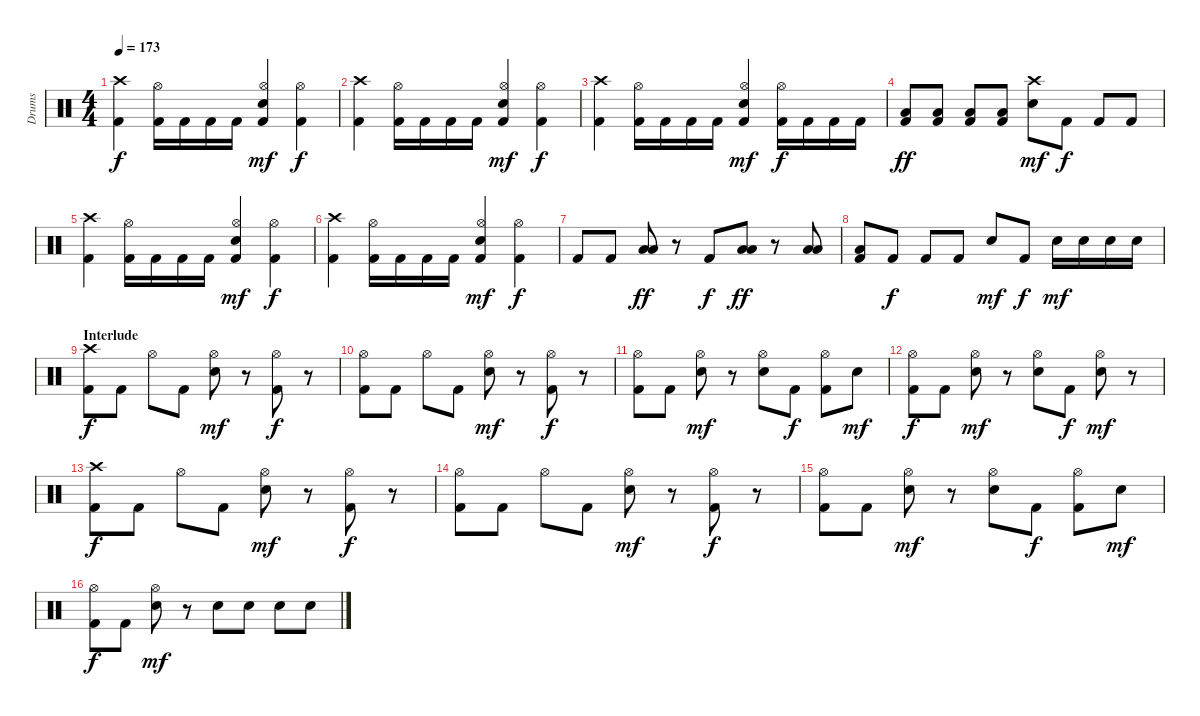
\track ("Drums" "Drums") {instrument percussion}
\staff {score}
\articulation defaults
\ts (4 4)
\tempo 173
\clef neutral
\ks c
("Crash high (hit)" "Kick (hit) 2").4{dy f} ("Hi-Hat (open)" "Kick (hit) 2").16 "Kick (hit) 2".16 "Kick (hit) 2".16 "Kick (hit) 2".16 ("Hi-Hat (open)" "Snare (hit) 2" "Kick (hit) 2").4{dy mf} ("Hi-Hat (open)" "Kick (hit) 2").4{dy f} |
("Crash high (hit)" "Kick (hit) 2").4 ("Hi-Hat (open)" "Kick (hit) 2").16 "Kick (hit) 2".16 "Kick (hit) 2".16 "Kick (hit) 2".16 ("Hi-Hat (open)" "Snare (hit) 2" "Kick (hit) 2").4{dy mf} ("Hi-Hat (open)" "Kick (hit) 2").4{dy f} |
("Crash high (hit)" "Kick (hit) 2").4 ("Hi-Hat (open)" "Kick (hit) 2").16 "Kick (hit) 2".16 "Kick (hit) 2".16 "Kick (hit) 2".16 ("Hi-Hat (open)" "Snare (hit) 2" "Kick (hit) 2").4{dy mf} ("Hi-Hat (open)" "Kick (hit) 2").16{dy f} "Kick (hit) 2".16 "Kick (hit) 2".16 "Kick (hit) 2".16 |
("Low Tom (hit)" "Kick (hit) 2").8{dy ff} ("Low Tom (hit)" "Kick (hit) 2").8 ("Low Tom (hit)" "Kick (hit) 2").8 ("Low Tom (hit)" "Kick (hit) 2").8 ("Crash high (hit)" "Snare (hit) 2").8{dy mf} "Kick (hit) 2".8{dy f} "Kick (hit) 2".8 "Kick (hit) 2".8 |
("Crash high (hit)" "Kick (hit) 2").4 ("Hi-Hat (open)" "Kick (hit) 2").16 "Kick (hit) 2".16 "Kick (hit) 2".16 "Kick (hit) 2".16 ("Hi-Hat (open)" "Snare (hit) 2" "Kick (hit) 2").4{dy mf} ("Hi-Hat (open)" "Kick (hit) 2").4{dy f} |
("Crash high (hit)" "Kick (hit) 2").4 ("Hi-Hat (open)" "Kick (hit) 2").16 "Kick (hit) 2".16 "Kick (hit) 2".16 "Kick (hit) 2".16 ("Hi-Hat (open)" "Snare (hit) 2" "Kick (hit) 2").4{dy mf} ("Hi-Hat (open)" "Kick (hit) 2").4{dy f} |
"Kick (hit) 2".8 "Kick (hit) 2".8 ("Low Tom (hit)" "Low Floor Tom (hit)").8{dy ff} r.8 "Kick (hit) 2".8{dy f} ("Low Tom (hit)" "Low Floor Tom (hit)").8{dy ff} r.8 ("Low Tom (hit)" "Low Floor Tom (hit)").8 |
("Low Tom (hit)" "Kick (hit) 2").8 "Kick (hit) 2".8{dy f} "Kick (hit) 2".8 "Kick (hit) 2".8 "Snare (hit) 2".8{dy mf} "Kick (hit) 2".8{dy f} "Snare (hit) 2".16{dy mf} "Snare (hit) 2".16 "Snare (hit) 2".16 "Snare (hit) 2".16 |
\section ("" "Interlude")
("Crash high (hit)" "Kick (hit) 2").8{dy f} "Kick (hit) 2".8 "Hi-Hat (open)".8 "Kick (hit) 2".8 ("Hi-Hat (open)" "Snare (hit) 2").8{dy mf} r.8 ("Hi-Hat (open)" "Kick (hit) 2").8{dy f} r.8 |
("Hi-Hat (open)" "Kick (hit) 2").8 "Kick (hit) 2".8 "Hi-Hat (open)".8 "Kick (hit) 2".8 ("Hi-Hat (open)" "Snare (hit) 2").8{dy mf} r.8 ("Hi-Hat (open)" "Kick (hit) 2").8{dy f} r.8 |
("Hi-Hat (open)" "Kick (hit) 2").8 "Kick (hit) 2".8 ("Hi-Hat (open)" "Snare (hit) 2").8{dy mf} r.8 ("Hi-Hat (open)" "Snare (hit) 2").8 "Kick (hit) 2".8{dy f} ("Hi-Hat (open)" "Kick (hit) 2").8 "Snare (hit) 2".8{dy mf} |
("Hi-Hat (open)" "Kick (hit) 2").8{dy f} "Kick (hit) 2".8 ("Hi-Hat (open)" "Snare (hit) 2").8{dy mf} r.8 ("Hi-Hat (open)" "Snare (hit) 2").8 "Kick (hit) 2".8{dy f} ("Hi-Hat (open)" "Snare (hit) 2").8{dy mf} r.8 |
("Crash high (hit)" "Kick (hit) 2").8{dy f} "Kick (hit) 2".8 "Hi-Hat (open)".8 "Kick (hit) 2".8 ("Hi-Hat (open)" "Snare (hit) 2").8{dy mf} r.8 ("Hi-Hat (open)" "Kick (hit) 2").8{dy f} r.8 |
("Hi-Hat (open)" "Kick (hit) 2").8 "Kick (hit) 2".8 "Hi-Hat (open)".8 "Kick (hit) 2".8 ("Hi-Hat (open)" "Snare (hit) 2").8{dy mf} r.8 ("Hi-Hat (open)" "Kick (hit) 2").8{dy f} r.8 |
("Hi-Hat (open)" "Kick (hit) 2").8 "Kick (hit) 2".8 ("Hi-Hat (open)" "Snare (hit) 2").8{dy mf} r.8 ("Hi-Hat (open)" "Snare (hit) 2").8 "Kick (hit) 2".8{dy f} ("Hi-Hat (open)" "Kick (hit) 2").8 "Snare (hit) 2".8{dy mf} |
("Hi-Hat (open)" "Kick (hit) 2").8{dy f} "Kick (hit) 2".8 ("Hi-Hat (open)" "Snare (hit) 2").8{dy mf} r.8 "Snare (hit) 2".8 "Snare (hit) 2".8 "Snare (hit) 2".8 "Snare (hit) 2".8
